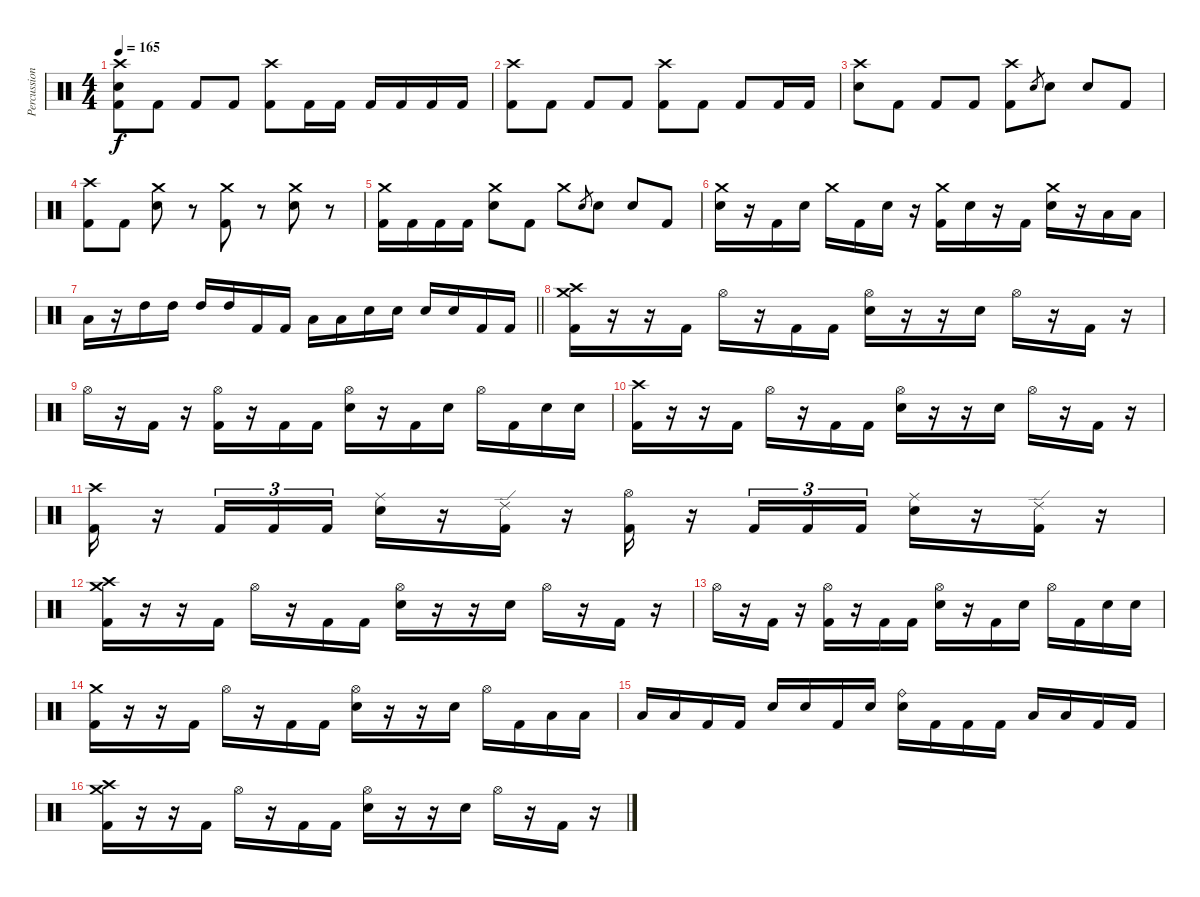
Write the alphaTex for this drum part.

\track ("Percussion" "Percussion") {instrument percussion}
\staff {score}
\articulation defaults
\ts (4 4)
\tempo 165
\clef neutral
\ks c
("Crash high (hit)" "Snare (hit) 2" "Kick (hit) 2").8{dy f} "Kick (hit) 2".8 "Kick (hit) 2".8 "Kick (hit) 2".8 ("Crash high (hit)" "Kick (hit) 2").8 "Kick (hit) 2".16 "Kick (hit) 2".16 "Kick (hit) 2".16 "Kick (hit) 2".16 "Kick (hit) 2".16 "Kick (hit) 2".16 |
("Crash high (hit)" "Kick (hit) 2").8 "Kick (hit) 2".8 "Kick (hit) 2".8 "Kick (hit) 2".8 ("Crash high (hit)" "Kick (hit) 2").8 "Kick (hit) 2".8 "Kick (hit) 2".8 "Kick (hit) 2".16 "Kick (hit) 2".16 |
("Crash high (hit)" "Snare (hit) 2").8 "Kick (hit) 2".8 "Kick (hit) 2".8 "Kick (hit) 2".8 ("Crash high (hit)" "Kick (hit) 2").8 "Snare (hit) 2".8{gr} "Snare (hit) 2".8 "Snare (hit) 2".8 "Kick (hit) 2".8 |
("Crash high (hit)" "Kick (hit) 2").8 "Kick (hit) 2".8 ("Crash medium (hit)" "Snare (hit) 2").8 r.8 ("Crash medium (hit)" "Kick (hit) 2").8 r.8 ("Crash medium (hit)" "Snare (hit) 2").8 r.8 |
("Crash medium (hit)" "Kick (hit) 2").16 "Kick (hit) 2".16 "Kick (hit) 2".16 "Kick (hit) 2".16 ("Crash medium (hit)" "Snare (hit) 2").8 "Kick (hit) 2".8 "Crash medium (hit)".8 "Snare (hit) 2".8{gr} "Snare (hit) 2".8 "Snare (hit) 2".8 "Kick (hit) 2".8 |
("Crash medium (hit)" "Snare (hit) 2").16 r.16 "Kick (hit) 2".16 "Snare (hit) 2".16 "Crash medium (hit)".16 "Kick (hit) 2".16 "Snare (hit) 2".16 r.16 ("Crash medium (hit)" "Kick (hit) 2").16 "Snare (hit) 2".16 r.16 "Kick (hit) 2".16 ("Crash medium (hit)" "Snare (hit) 2").16 r.16 "Low Tom (hit)".16 "Low Tom (hit)".16 |
\barLineRight lightlight "Low Tom (hit)".16
r.16 "High Tom (hit)".16 "High Tom (hit)".16 "High Tom (hit)".16 "High Tom (hit)".16 "Kick (hit) 2".16 "Kick (hit) 2".16 "Low Tom (hit)".16 "Low Tom (hit)".16 "Snare (hit) 2".16 "Snare (hit) 2".16 "Snare (hit) 2".16 "Snare (hit) 2".16 "Kick (hit) 2".16 "Kick (hit) 2".16 |
\section ("" "")
("Crash high (hit)" "Crash medium (hit)" "Kick (hit) 2").16 r.16 r.16 "Kick (hit) 2".16 "Hi-Hat (open)".16 r.16 "Kick (hit) 2".16 "Kick (hit) 2".16 ("Hi-Hat (open)" "Snare (hit) 2").16 r.16 r.16 "Snare (hit) 2".16 "Hi-Hat (open)".16 r.16 "Kick (hit) 2".16 r.16 |
"Hi-Hat (open)".16 r.16 "Kick (hit) 2".16 r.16 ("Hi-Hat (open)" "Kick (hit) 2").16 r.16 "Kick (hit) 2".16 "Kick (hit) 2".16 ("Hi-Hat (open)" "Snare (hit) 2").16 r.16 "Kick (hit) 2".16 "Snare (hit) 2".16 "Hi-Hat (open)".16 "Kick (hit) 2".16 "Snare (hit) 2".16 "Snare (hit) 2".16 |
("Crash high (hit)" "Kick (hit) 2").16 r.16 r.16 "Kick (hit) 2".16 "Hi-Hat (open)".16 r.16 "Kick (hit) 2".16 "Kick (hit) 2".16 ("Hi-Hat (open)" "Snare (hit) 2").16 r.16 r.16 "Snare (hit) 2".16 "Hi-Hat (open)".16 r.16 "Kick (hit) 2".16 r.16 |
("Crash high (hit)" "Kick (hit) 2").16 r.16 "Kick (hit) 2".16{tu (3 2)} "Kick (hit) 2".16{tu (3 2)} "Kick (hit) 2".16{tu (3 2)} ("Ride (middle)" "Snare (hit) 2").16 r.16 ("Ride (edge) 2" "Kick (hit) 2").16 r.16 ("Hi-Hat (open)" "Kick (hit) 2").16 r.16 "Kick (hit) 2".16{tu (3 2)} "Kick (hit) 2".16{tu (3 2)} "Kick (hit) 2".16{tu (3 2)} ("Ride (middle)" "Snare (hit) 2").16 r.16 ("Ride (edge) 2" "Kick (hit) 2").16 r.16 |
("Crash high (hit)" "Crash medium (hit)" "Kick (hit) 2").16 r.16 r.16 "Kick (hit) 2".16 "Hi-Hat (open)".16 r.16 "Kick (hit) 2".16 "Kick (hit) 2".16 ("Hi-Hat (open)" "Snare (hit) 2").16 r.16 r.16 "Snare (hit) 2".16 "Hi-Hat (open)".16 r.16 "Kick (hit) 2".16 r.16 |
"Hi-Hat (open)".16 r.16 "Kick (hit) 2".16 r.16 ("Hi-Hat (open)" "Kick (hit) 2").16 r.16 "Kick (hit) 2".16 "Kick (hit) 2".16 ("Hi-Hat (open)" "Snare (hit) 2").16 r.16 "Kick (hit) 2".16 "Snare (hit) 2".16 "Hi-Hat (open)".16 "Kick (hit) 2".16 "Snare (hit) 2".16 "Snare (hit) 2".16 |
("Crash medium (hit)" "Kick (hit) 2").16 r.16 r.16 "Kick (hit) 2".16 "Hi-Hat (open)".16 r.16 "Kick (hit) 2".16 "Kick (hit) 2".16 ("Hi-Hat (open)" "Snare (hit) 2").16 r.16 r.16 "Snare (hit) 2".16 "Hi-Hat (open)".16 "Kick (hit) 2".16 "Low Tom (hit)".16 "Low Tom (hit)".16 |
"Low Tom (hit)".16 "Low Tom (hit)".16 "Kick (hit) 2".16 "Kick (hit) 2".16 "Snare (hit) 2".16 "Snare (hit) 2".16 "Kick (hit) 2".16 "Snare (hit) 2".16 ("Ride (bell)" "Snare (hit) 2").16 "Kick (hit) 2".16 "Kick (hit) 2".16 "Kick (hit) 2".16 "Low Tom (hit)".16 "Low Tom (hit)".16 "Kick (hit) 2".16 "Kick (hit) 2".16 |
("Crash high (hit)" "Crash medium (hit)" "Kick (hit) 2").16 r.16 r.16 "Kick (hit) 2".16 "Hi-Hat (open)".16 r.16 "Kick (hit) 2".16 "Kick (hit) 2".16 ("Hi-Hat (open)" "Snare (hit) 2").16 r.16 r.16 "Snare (hit) 2".16 "Hi-Hat (open)".16 r.16 "Kick (hit) 2".16 r.16
